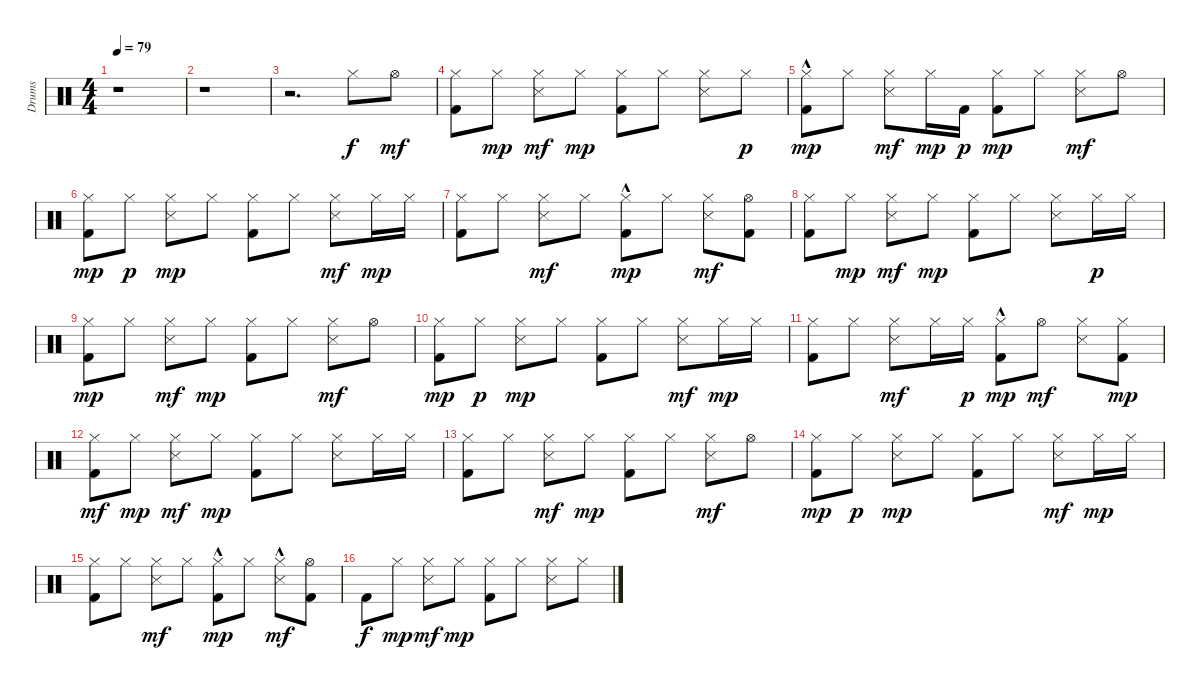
\track ("Drums" "Drums") {instrument percussion}
\staff {score}
\articulation defaults
\ts (4 4)
\tempo 79
\clef neutral
\ks c
r.1{dy f} |
r.1 |
r.2{d} "Hi-Hat (closed)".8 "Hi-Hat (open)".8{dy mf} |
("Kick (hit) 2" "Hi-Hat (closed)").8 "Hi-Hat (closed)".8{dy mp} ("Snare (side stick) 3" "Hi-Hat (closed)").8{dy mf} "Hi-Hat (closed)".8{dy mp} ("Kick (hit) 2" "Hi-Hat (closed)").8 "Hi-Hat (closed)".8 ("Snare (side stick) 3" "Hi-Hat (closed)").8 "Hi-Hat (closed)".8{dy p} |
("Kick (hit) 2"{hac} "Hi-Hat (closed)").8{dy mp} "Hi-Hat (closed)".8 ("Snare (side stick) 3" "Hi-Hat (closed)").8{dy mf} "Hi-Hat (closed)".16{dy mp} "Kick (hit) 2".16{dy p} ("Kick (hit) 2" "Hi-Hat (closed)").8{dy mp} "Hi-Hat (closed)".8 ("Snare (side stick) 3" "Hi-Hat (closed)").8{dy mf} "Hi-Hat (open)".8 |
("Kick (hit) 2" "Hi-Hat (closed)").8{dy mp} "Hi-Hat (closed)".8{dy p} ("Snare (side stick) 3" "Hi-Hat (closed)").8{dy mp} "Hi-Hat (closed)".8 ("Kick (hit) 2" "Hi-Hat (closed)").8 "Hi-Hat (closed)".8 ("Snare (side stick) 3" "Hi-Hat (closed)").8{dy mf} "Hi-Hat (closed)".16{dy mp} "Hi-Hat (closed)".16 |
("Kick (hit) 2" "Hi-Hat (closed)").8 "Hi-Hat (closed)".8 ("Snare (side stick) 3" "Hi-Hat (closed)").8{dy mf} "Hi-Hat (closed)".8 ("Kick (hit) 2"{hac} "Hi-Hat (closed)").8{dy mp} "Hi-Hat (closed)".8 ("Snare (side stick) 3" "Hi-Hat (closed)").8{dy mf} ("Kick (hit) 2" "Hi-Hat (open)").8 |
("Kick (hit) 2" "Hi-Hat (closed)").8 "Hi-Hat (closed)".8{dy mp} ("Snare (side stick) 3" "Hi-Hat (closed)").8{dy mf} "Hi-Hat (closed)".8{dy mp} ("Kick (hit) 2" "Hi-Hat (closed)").8 "Hi-Hat (closed)".8 ("Snare (side stick) 3" "Hi-Hat (closed)").8 "Hi-Hat (closed)".16{dy p} "Hi-Hat (closed)".16 |
("Kick (hit) 2" "Hi-Hat (closed)").8{dy mp} "Hi-Hat (closed)".8 ("Snare (side stick) 3" "Hi-Hat (closed)").8{dy mf} "Hi-Hat (closed)".8{dy mp} ("Kick (hit) 2" "Hi-Hat (closed)").8 "Hi-Hat (closed)".8 ("Snare (side stick) 3" "Hi-Hat (closed)").8{dy mf} "Hi-Hat (open)".8 |
("Kick (hit) 2" "Hi-Hat (closed)").8{dy mp} "Hi-Hat (closed)".8{dy p} ("Snare (side stick) 3" "Hi-Hat (closed)").8{dy mp} "Hi-Hat (closed)".8 ("Kick (hit) 2" "Hi-Hat (closed)").8 "Hi-Hat (closed)".8 ("Snare (side stick) 3" "Hi-Hat (closed)").8{dy mf} "Hi-Hat (closed)".16{dy mp} "Hi-Hat (closed)".16 |
("Kick (hit) 2" "Hi-Hat (closed)").8 "Hi-Hat (closed)".8 ("Snare (side stick) 3" "Hi-Hat (closed)").8{dy mf} "Hi-Hat (closed)".16 "Hi-Hat (closed)".16{dy p} ("Kick (hit) 2"{hac} "Hi-Hat (closed)").8{dy mp} "Hi-Hat (open)".8{dy mf} ("Snare (side stick) 3" "Hi-Hat (closed)").8 ("Kick (hit) 2" "Hi-Hat (closed)").8{dy mp} |
("Kick (hit) 2" "Hi-Hat (closed)").8{dy mf} "Hi-Hat (closed)".8{dy mp} ("Snare (side stick) 3" "Hi-Hat (closed)").8{dy mf} "Hi-Hat (closed)".8{dy mp} ("Kick (hit) 2" "Hi-Hat (closed)").8 "Hi-Hat (closed)".8 ("Snare (side stick) 3" "Hi-Hat (closed)").8 "Hi-Hat (closed)".16 "Hi-Hat (closed)".16 |
("Kick (hit) 2" "Hi-Hat (closed)").8 "Hi-Hat (closed)".8 ("Snare (side stick) 3" "Hi-Hat (closed)").8{dy mf} "Hi-Hat (closed)".8{dy mp} ("Kick (hit) 2" "Hi-Hat (closed)").8 "Hi-Hat (closed)".8 ("Snare (side stick) 3" "Hi-Hat (closed)").8{dy mf} "Hi-Hat (open)".8 |
("Kick (hit) 2" "Hi-Hat (closed)").8{dy mp} "Hi-Hat (closed)".8{dy p} ("Snare (side stick) 3" "Hi-Hat (closed)").8{dy mp} "Hi-Hat (closed)".8 ("Kick (hit) 2" "Hi-Hat (closed)").8 "Hi-Hat (closed)".8 ("Snare (side stick) 3" "Hi-Hat (closed)").8{dy mf} "Hi-Hat (closed)".16{dy mp} "Hi-Hat (closed)".16 |
("Kick (hit) 2" "Hi-Hat (closed)").8 "Hi-Hat (closed)".8 ("Snare (side stick) 3" "Hi-Hat (closed)").8{dy mf} "Hi-Hat (closed)".8 ("Kick (hit) 2"{hac} "Hi-Hat (closed)").8{dy mp} "Hi-Hat (closed)".8 ("Snare (side stick) 3" "Hi-Hat (closed)"{hac}).8{dy mf} ("Kick (hit) 2" "Hi-Hat (open)").8 |
"Kick (hit) 2".8{dy f} "Hi-Hat (closed)".8{dy mp} ("Snare (side stick) 3" "Hi-Hat (closed)").8{dy mf} "Hi-Hat (closed)".8{dy mp} ("Kick (hit) 2" "Hi-Hat (closed)").8 "Hi-Hat (closed)".8 ("Snare (side stick) 3" "Hi-Hat (closed)").8 "Hi-Hat (closed)".8
